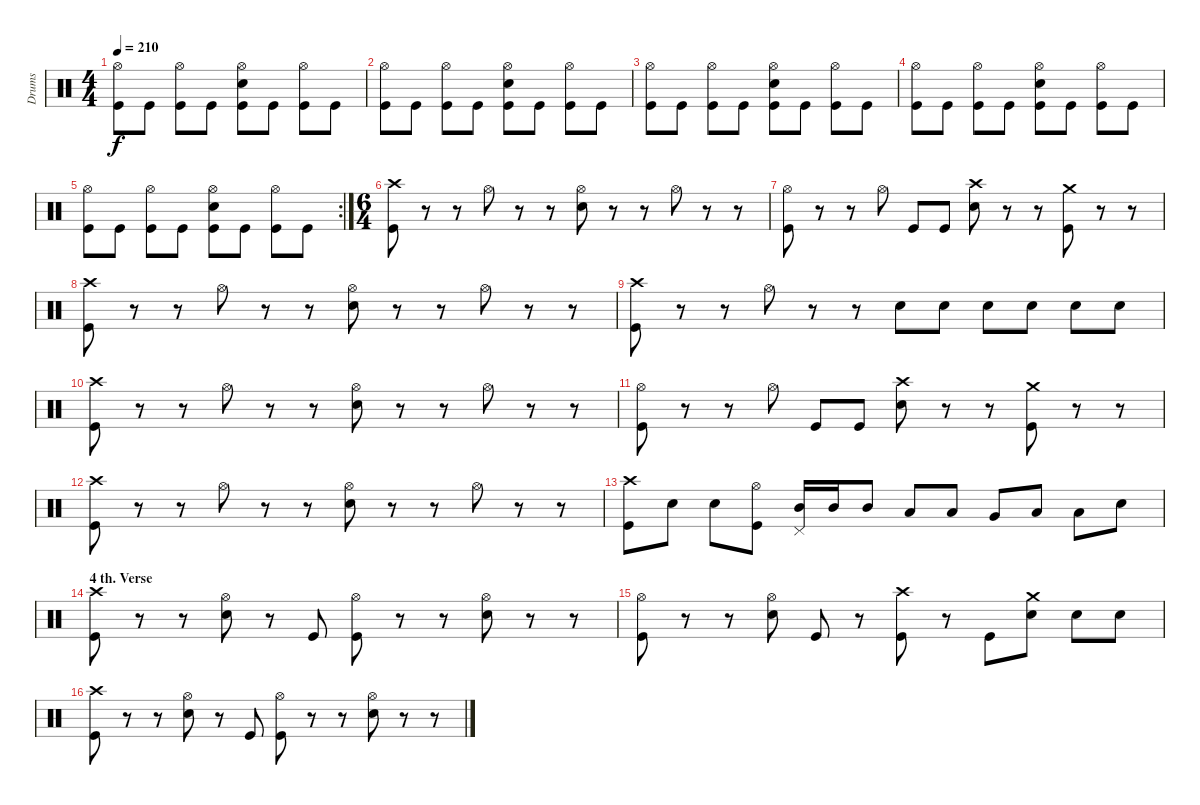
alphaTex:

\track ("Drums" "Drums") {instrument percussion}
\staff {score}
\articulation defaults
\ts (4 4)
\tempo 210
\clef neutral
\ks c
("Hi-Hat (open)" "Kick (hit)").8{dy f} "Kick (hit)".8 ("Hi-Hat (open)" "Kick (hit)").8 "Kick (hit)".8 ("Hi-Hat (open)" "Snare (hit) 2" "Kick (hit)").8 "Kick (hit)".8 ("Hi-Hat (open)" "Kick (hit)").8 "Kick (hit)".8 |
("Hi-Hat (open)" "Kick (hit)").8 "Kick (hit)".8 ("Hi-Hat (open)" "Kick (hit)").8 "Kick (hit)".8 ("Hi-Hat (open)" "Snare (hit) 2" "Kick (hit)").8 "Kick (hit)".8 ("Hi-Hat (open)" "Kick (hit)").8 "Kick (hit)".8 |
("Hi-Hat (open)" "Kick (hit)").8 "Kick (hit)".8 ("Hi-Hat (open)" "Kick (hit)").8 "Kick (hit)".8 ("Hi-Hat (open)" "Snare (hit) 2" "Kick (hit)").8 "Kick (hit)".8 ("Hi-Hat (open)" "Kick (hit)").8 "Kick (hit)".8 |
("Hi-Hat (open)" "Kick (hit)").8 "Kick (hit)".8 ("Hi-Hat (open)" "Kick (hit)").8 "Kick (hit)".8 ("Hi-Hat (open)" "Snare (hit) 2" "Kick (hit)").8 "Kick (hit)".8 ("Hi-Hat (open)" "Kick (hit)").8 "Kick (hit)".8 |
\rc 2
("Hi-Hat (open)" "Kick (hit)").8 "Kick (hit)".8 ("Hi-Hat (open)" "Kick (hit)").8 "Kick (hit)".8 ("Hi-Hat (open)" "Snare (hit) 2" "Kick (hit)").8 "Kick (hit)".8 ("Hi-Hat (open)" "Kick (hit)").8 "Kick (hit)".8 |
\ts (6 4)
("Crash high (hit)" "Kick (hit)").8 r.8 r.8 "Hi-Hat (open)".8 r.8 r.8 ("Hi-Hat (open)" "Snare (hit) 2").8 r.8 r.8 "Hi-Hat (open)".8 r.8 r.8 |
("Hi-Hat (open)" "Kick (hit)").8 r.8 r.8 "Hi-Hat (open)".8 "Kick (hit)".8 "Kick (hit)".8 ("Crash high (hit)" "Snare (hit) 2").8 r.8 r.8 ("Crash medium (hit)" "Kick (hit)").8 r.8 r.8 |
("Crash high (hit)" "Kick (hit)").8 r.8 r.8 "Hi-Hat (open)".8 r.8 r.8 ("Hi-Hat (open)" "Snare (hit) 2").8 r.8 r.8 "Hi-Hat (open)".8 r.8 r.8 |
("Crash high (hit)" "Kick (hit)").8 r.8 r.8 "Hi-Hat (open)".8 r.8 r.8 "Snare (hit) 2".8 "Snare (hit) 2".8 "Snare (hit) 2".8 "Snare (hit) 2".8 "Snare (hit) 2".8 "Snare (hit) 2".8 |
("Crash high (hit)" "Kick (hit)").8 r.8 r.8 "Hi-Hat (open)".8 r.8 r.8 ("Hi-Hat (open)" "Snare (hit) 2").8 r.8 r.8 "Hi-Hat (open)".8 r.8 r.8 |
("Hi-Hat (open)" "Kick (hit)").8 r.8 r.8 "Hi-Hat (open)".8 "Kick (hit)".8 "Kick (hit)".8 ("Crash high (hit)" "Snare (hit) 2").8 r.8 r.8 ("Crash medium (hit)" "Kick (hit)").8 r.8 r.8 |
("Crash high (hit)" "Kick (hit)").8 r.8 r.8 "Hi-Hat (open)".8 r.8 r.8 ("Hi-Hat (open)" "Snare (hit) 2").8 r.8 r.8 "Hi-Hat (open)".8 r.8 r.8 |
("Crash high (hit)" "Kick (hit)").8 "Snare (hit) 2".8 "Snare (hit) 2".8 ("Hi-Hat (open)" "Kick (hit)").8 ("Mid Tom (hit)" "Pedal Hi-Hat (hit)").16 "Mid Tom (hit)".16 "Mid Tom (hit)".8 "Low Tom (hit)".8 "Low Tom (hit)".8 "Very Low Tom (hit)".8 "Low Floor Tom (hit)".8 "Low Floor Tom (hit)".8 "Snare (hit) 2".8 |
\section ("" "4 th. Verse")
("Crash high (hit)" "Kick (hit)").8 r.8 r.8 ("Hi-Hat (open)" "Snare (hit) 2").8 r.8 "Kick (hit)".8 ("Hi-Hat (open)" "Kick (hit)").8 r.8 r.8 ("Hi-Hat (open)" "Snare (hit) 2").8 r.8 r.8 |
("Hi-Hat (open)" "Kick (hit)").8 r.8 r.8 ("Hi-Hat (open)" "Snare (hit) 2").8 "Kick (hit)".8 r.8 ("Crash high (hit)" "Kick (hit)").8 r.8 "Kick (hit)".8 ("Crash medium (hit)" "Snare (hit) 2").8 "Snare (hit) 2".8 "Snare (hit) 2".8 |
("Crash high (hit)" "Kick (hit)").8 r.8 r.8 ("Hi-Hat (open)" "Snare (hit) 2").8 r.8 "Kick (hit)".8 ("Hi-Hat (open)" "Kick (hit)").8 r.8 r.8 ("Hi-Hat (open)" "Snare (hit) 2").8 r.8 r.8
